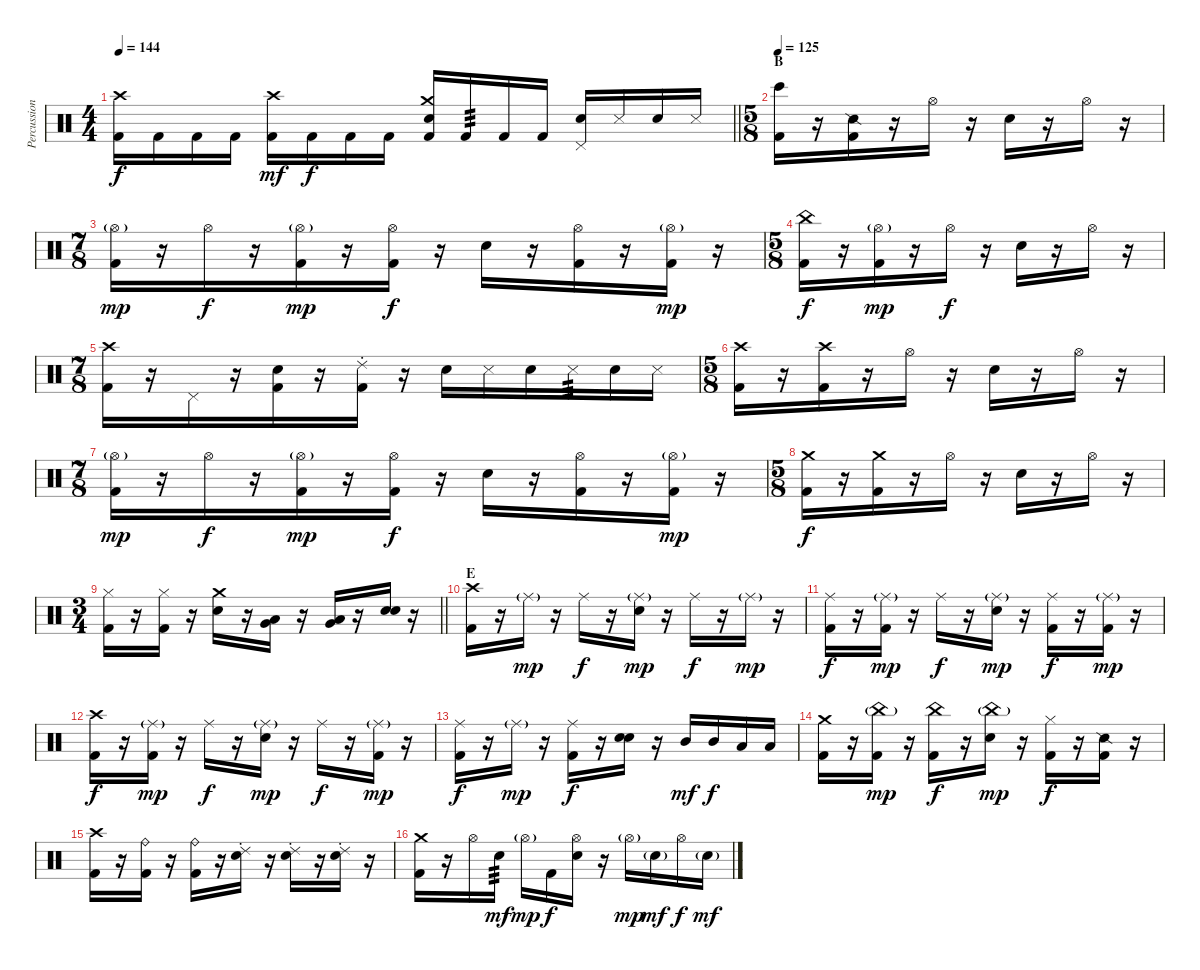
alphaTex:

\track ("Percussion" "Percussion") {instrument percussion}
\staff {score}
\articulation defaults
\ts (4 4)
\tempo 144
\clef neutral
\barLineRight lightlight
\ks c
("Crash high (hit)" "Kick (hit) 2").16{dy f} "Kick (hit) 2".16 "Kick (hit) 2".16 "Kick (hit) 2".16 ("Crash high (hit)" "Kick (hit) 2").16{dy mf} "Kick (hit) 2".16{dy f} "Kick (hit) 2".16 "Kick (hit) 2".16 ("Crash medium (hit)" "Snare (hit) 2" "Kick (hit) 2").16 "Kick (hit) 2".16{tp 3} "Kick (hit) 2".16 "Kick (hit) 2".16 ("Pedal Hi-Hat (hit)" "Snare (hit) 2").16 "Metronome (hit)".16 "Snare (hit) 2".16 "Metronome (hit)".16 |
\ts (5 8)
\section ("" "B")
\tempo 125
("Bongo High (hit)" "Kick (hit) 2").16 r.16 ("Snare (side stick) 2" "Kick (hit) 2").16 r.16 "Hi-Hat (open)".16 r.16 "Snare (hit) 2".16 r.16 "Hi-Hat (open)".16 r.16 |
\ts (7 8)
("Hi-Hat (open)"{g} "Kick (hit) 2").16{dy mp} r.16 "Hi-Hat (open)".16{dy f} r.16 ("Hi-Hat (open)"{g} "Kick (hit) 2").16{dy mp} r.16 ("Hi-Hat (open)" "Kick (hit) 2").16{dy f} r.16 "Snare (hit) 2".16 r.16 ("Hi-Hat (open)" "Kick (hit) 2").16 r.16 ("Hi-Hat (open)"{g} "Kick (hit) 2").16{dy mp} r.16 |
\ts (5 8)
("China (hit)" "Kick (hit) 2").16{dy f} r.16 ("Hi-Hat (open)"{g} "Kick (hit) 2").16{dy mp} r.16 "Hi-Hat (open)".16{dy f} r.16 "Snare (hit) 2".16 r.16 "Hi-Hat (open)".16 r.16 |
\ts (7 8)
("Crash high (hit)" "Kick (hit) 2").16 r.16 "Pedal Hi-Hat (hit)".16 r.16 ("Snare (hit)" "Kick (hit) 2").16 r.16 ("Ride (choke) 2" "Kick (hit) 2").16 r.16 "Snare (hit) 2".16 "Metronome (hit)".16 "Snare (hit) 2".16 "Metronome (hit)".16{tp 3} "Snare (hit) 2".16 "Metronome (hit)".16 |
\ts (5 8)
("Crash high (hit)" "Kick (hit) 2").16 r.16 ("Crash high (hit)" "Kick (hit) 2").16 r.16 "Hi-Hat (open)".16 r.16 "Snare (hit) 2".16 r.16 "Hi-Hat (open)".16 r.16 |
\ts (7 8)
("Hi-Hat (open)"{g} "Kick (hit) 2").16{dy mp} r.16 "Hi-Hat (open)".16{dy f} r.16 ("Hi-Hat (open)"{g} "Kick (hit) 2").16{dy mp} r.16 ("Hi-Hat (open)" "Kick (hit) 2").16{dy f} r.16 "Snare (hit) 2".16 r.16 ("Hi-Hat (open)" "Kick (hit) 2").16 r.16 ("Hi-Hat (open)"{g} "Kick (hit) 2").16{dy mp} r.16 |
\ts (5 8)
("Crash medium (hit)" "Kick (hit) 2").16{dy f} r.16 ("Crash medium (hit)" "Kick (hit) 2").16 r.16 "Hi-Hat (open)".16 r.16 "Snare (hit) 2".16 r.16 "Hi-Hat (open)".16 r.16 |
\ts (3 4)
\barLineRight lightlight
("Hi-Hat (closed)" "Kick (hit) 2").16 r.16 ("Hi-Hat (closed)" "Kick (hit) 2").16 r.16 ("Crash medium (hit)" "Snare (hit) 2").16 r.16 ("Low Tom (hit)" "Very Low Tom (hit)").16{bu 60} r.16 ("Low Tom (hit)" "Very Low Tom (hit)").16{bu 60} r.16 ("Snare (hit)" "Snare (hit) 2").16 r.16 |
\section ("" "E")
("Crash high (hit)" "Kick (hit) 2").16 r.16 "Ride (middle)"{g}.16{dy mp} r.16 "Ride (middle)".16{dy f} r.16 ("Ride (middle)"{g} "Snare (hit) 2").16{dy mp} r.16 "Ride (middle)".16{dy f} r.16 "Ride (middle)"{g}.16{dy mp} r.16 |
("Ride (middle)" "Kick (hit) 2").16{dy f} r.16 ("Ride (middle)"{g} "Kick (hit) 2").16{dy mp} r.16 "Ride (middle)".16{dy f} r.16 ("Ride (middle)"{g} "Snare (hit) 2").16{dy mp} r.16 ("Ride (middle)" "Kick (hit) 2").16{dy f} r.16 ("Ride (middle)"{g} "Kick (hit) 2").16{dy mp} r.16 |
("Crash high (hit)" "Kick (hit) 2").16{dy f} r.16 ("Ride (middle)"{g} "Kick (hit) 2").16{dy mp} r.16 "Ride (middle)".16{dy f} r.16 ("Ride (middle)"{g} "Snare (hit) 2").16{dy mp} r.16 "Ride (middle)".16{dy f} r.16 ("Ride (middle)"{g} "Kick (hit) 2").16{dy mp} r.16 |
("Ride (middle)" "Kick (hit) 2").16{dy f} r.16 "Ride (middle)"{g}.16{dy mp} r.16 ("Ride (middle)" "Kick (hit) 2").16{dy f} r.16 ("Snare (hit)" "Snare (hit) 2").16 r.16 "Mid Tom (hit)".16{dy mf} "Mid Tom (hit)".16{dy f} "Low Tom (hit)".16 "Low Tom (hit)".16 |
("Crash medium (hit)" "Kick (hit) 2").16 r.16 ("China (hit)"{g} "Kick (hit) 2").16{dy mp} r.16 ("China (hit)" "Kick (hit) 2").16{dy f} r.16 ("China (hit)"{g} "Snare (hit) 2").16{dy mp} r.16 ("Hi-Hat (closed)" "Kick (hit) 2").16{dy f} r.16 ("Snare (side stick) 2" "Kick (hit) 2").16 r.16 |
("Crash high (hit)" "Kick (hit) 2").16 r.16 ("Ride (bell)" "Kick (hit) 2").16 r.16 ("Ride (bell)" "Kick (hit) 2").16 r.16 ("Ride (choke) 2" "Snare (hit) 2").16 r.16 ("Ride (choke) 2" "Snare (hit) 2").16 r.16 ("Ride (choke) 2" "Snare (hit) 2").16 r.16 |
("Crash medium (hit)" "Kick (hit) 2").16 r.16 "Hi-Hat (open)".16 "Snare (hit) 2".16{tp 3 dy mf} "Hi-Hat (open)"{g}.16{dy mp} "Kick (hit) 2".16{dy f} ("Hi-Hat (open)" "Snare (hit) 2").16 r.16 "Hi-Hat (open)"{g}.16{dy mp} "Snare (hit) 2"{g}.16{dy mf} "Hi-Hat (open)".16{dy f} "Snare (hit) 2"{g}.16{dy mf}
